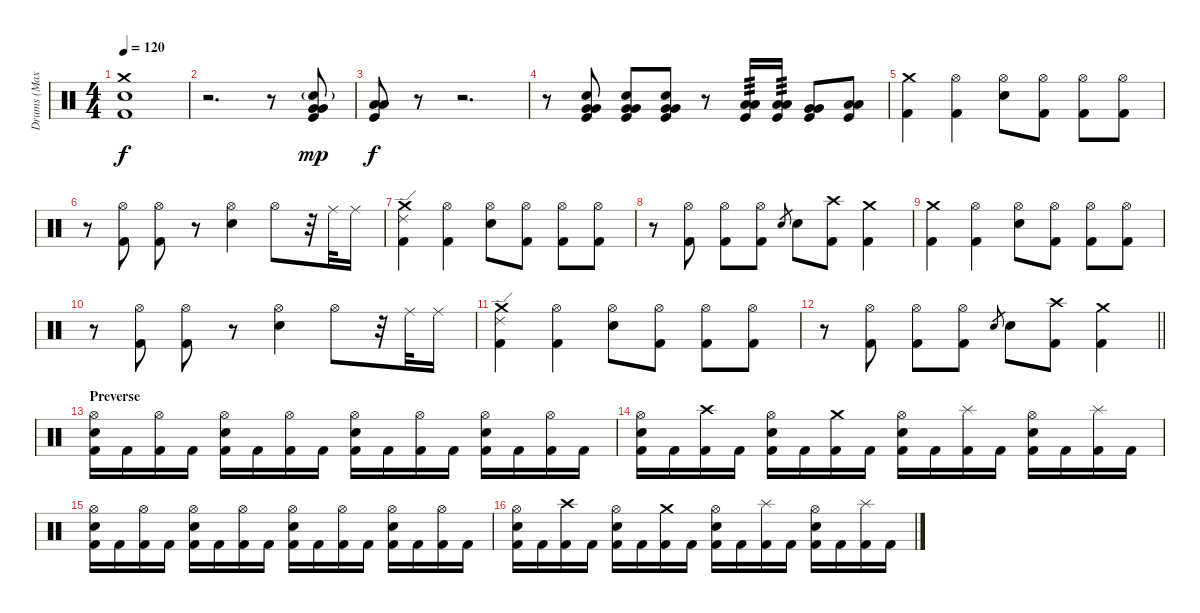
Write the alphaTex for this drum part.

\track ("Drums (Max Duhamel)" "Drums (Max") {instrument percussion}
\staff {score}
\articulation defaults
\ts (4 4)
\tempo 120
\clef neutral
\ks c
("Crash medium (hit)" "Electric Snare (hit)" "Kick (hit) 2").1{dy f} |
r.2{d} r.8 ("Very Low Tom (hit)" "Very Low Tom (hit)" "Electric Snare (hit)"{g} "Kick (hit)").8{dy mp} |
("Low Floor Tom (hit)" "Low Floor Tom (hit)" "Kick (hit)").8{dy f} r.8 r.2{d} |
r.8 ("Very Low Tom (hit)" "Very Low Tom (hit)" "Electric Snare (hit)" "Kick (hit)").8 ("Very Low Tom (hit)" "Very Low Tom (hit)" "Electric Snare (hit)" "Kick (hit)").8 ("Very Low Tom (hit)" "Very Low Tom (hit)" "Electric Snare (hit)" "Kick (hit)").8 r.8 ("Low Tom (hit)" "Low Tom (hit)" "Kick (hit)").16{tp 3} ("Low Tom (hit)" "Low Tom (hit)" "Kick (hit)").16{tp 3} ("Very Low Tom (hit)" "Very Low Tom (hit)" "Kick (hit)").8 ("Low Tom (hit)" "Low Tom (hit)" "Kick (hit)").8 |
("Crash medium (hit)" "Kick (hit) 2").4 ("Hi-Hat (open)" "Kick (hit) 2").4 ("Hi-Hat (open)" "Electric Snare (hit)").8 ("Hi-Hat (open)" "Kick (hit) 2").8 ("Hi-Hat (open)" "Kick (hit) 2").8 ("Hi-Hat (open)" "Kick (hit) 2").8 |
r.8 ("Hi-Hat (open)" "Kick (hit) 2").8 ("Hi-Hat (open)" "Kick (hit) 2").8 r.8 ("Hi-Hat (open)" "Electric Snare (hit)").4 "Hi-Hat (open)".8 r.32 "Ride (middle)".32 "Ride (middle)".16 |
("Crash medium (hit)" "Ride (edge) 2" "Kick (hit) 2").4 ("Hi-Hat (open)" "Kick (hit) 2").4 ("Hi-Hat (open)" "Electric Snare (hit)").8 ("Hi-Hat (open)" "Kick (hit) 2").8 ("Hi-Hat (open)" "Kick (hit) 2").8 ("Hi-Hat (open)" "Kick (hit) 2").8 |
r.8 ("Hi-Hat (open)" "Kick (hit) 2").8 ("Hi-Hat (open)" "Kick (hit) 2").8 ("Hi-Hat (open)" "Kick (hit) 2").8 "Electric Snare (hit)".8{gr} "Electric Snare (hit)".8 ("Crash high (hit)" "Kick (hit) 2").8 ("Crash medium (hit)" "Kick (hit) 2").4 |
("Crash medium (hit)" "Kick (hit) 2").4 ("Hi-Hat (open)" "Kick (hit) 2").4 ("Hi-Hat (open)" "Electric Snare (hit)").8 ("Hi-Hat (open)" "Kick (hit) 2").8 ("Hi-Hat (open)" "Kick (hit) 2").8 ("Hi-Hat (open)" "Kick (hit) 2").8 |
r.8 ("Hi-Hat (open)" "Kick (hit) 2").8 ("Hi-Hat (open)" "Kick (hit) 2").8 r.8 ("Hi-Hat (open)" "Electric Snare (hit)").4 "Hi-Hat (open)".8 r.32 "Ride (middle)".32 "Ride (middle)".16 |
("Crash medium (hit)" "Ride (edge) 2" "Kick (hit) 2").4 ("Hi-Hat (open)" "Kick (hit) 2").4 ("Hi-Hat (open)" "Electric Snare (hit)").8 ("Hi-Hat (open)" "Kick (hit) 2").8 ("Hi-Hat (open)" "Kick (hit) 2").8 ("Hi-Hat (open)" "Kick (hit) 2").8 |
\barLineRight lightlight
r.8 ("Hi-Hat (open)" "Kick (hit) 2").8 ("Hi-Hat (open)" "Kick (hit) 2").8 ("Hi-Hat (open)" "Kick (hit) 2").8 "Electric Snare (hit)".8{gr} "Electric Snare (hit)".8 ("Crash high (hit)" "Kick (hit) 2").8 ("Crash medium (hit)" "Kick (hit) 2").4 |
\section ("" "Preverse")
("Hi-Hat (open)" "Electric Snare (hit)" "Kick (hit) 2").16 "Kick (hit) 2".16 ("Hi-Hat (open)" "Kick (hit) 2").16 "Kick (hit) 2".16 ("Hi-Hat (open)" "Electric Snare (hit)" "Kick (hit) 2").16 "Kick (hit) 2".16 ("Hi-Hat (open)" "Kick (hit) 2").16 "Kick (hit) 2".16 ("Hi-Hat (open)" "Electric Snare (hit)" "Kick (hit) 2").16 "Kick (hit) 2".16 ("Hi-Hat (open)" "Kick (hit) 2").16 "Kick (hit) 2".16 ("Hi-Hat (open)" "Electric Snare (hit)" "Kick (hit) 2").16 "Kick (hit) 2".16 ("Hi-Hat (open)" "Kick (hit) 2").16 "Kick (hit) 2".16 |
("Hi-Hat (open)" "Electric Snare (hit)" "Kick (hit) 2").16 "Kick (hit) 2".16 ("Crash high (hit)" "Kick (hit) 2").16 "Kick (hit) 2".16 ("Hi-Hat (open)" "Electric Snare (hit)" "Kick (hit) 2").16 "Kick (hit) 2".16 ("Crash medium (hit)" "Kick (hit) 2").16 "Kick (hit) 2".16 ("Hi-Hat (open)" "Electric Snare (hit)" "Kick (hit) 2").16 "Kick (hit) 2".16 ("Splash (hit)" "Kick (hit) 2").16 "Kick (hit) 2".16 ("Hi-Hat (open)" "Electric Snare (hit)" "Kick (hit) 2").16 "Kick (hit) 2".16 ("Splash (hit)" "Kick (hit) 2").16 "Kick (hit) 2".16 |
("Hi-Hat (open)" "Electric Snare (hit)" "Kick (hit) 2").16 "Kick (hit) 2".16 ("Hi-Hat (open)" "Kick (hit) 2").16 "Kick (hit) 2".16 ("Hi-Hat (open)" "Electric Snare (hit)" "Kick (hit) 2").16 "Kick (hit) 2".16 ("Hi-Hat (open)" "Kick (hit) 2").16 "Kick (hit) 2".16 ("Hi-Hat (open)" "Electric Snare (hit)" "Kick (hit) 2").16 "Kick (hit) 2".16 ("Hi-Hat (open)" "Kick (hit) 2").16 "Kick (hit) 2".16 ("Hi-Hat (open)" "Electric Snare (hit)" "Kick (hit) 2").16 "Kick (hit) 2".16 ("Hi-Hat (open)" "Kick (hit) 2").16 "Kick (hit) 2".16 |
("Hi-Hat (open)" "Electric Snare (hit)" "Kick (hit) 2").16 "Kick (hit) 2".16 ("Crash high (hit)" "Kick (hit) 2").16 "Kick (hit) 2".16 ("Hi-Hat (open)" "Electric Snare (hit)" "Kick (hit) 2").16 "Kick (hit) 2".16 ("Crash medium (hit)" "Kick (hit) 2").16 "Kick (hit) 2".16 ("Hi-Hat (open)" "Electric Snare (hit)" "Kick (hit) 2").16 "Kick (hit) 2".16 ("Splash (hit)" "Kick (hit) 2").16 "Kick (hit) 2".16 ("Hi-Hat (open)" "Electric Snare (hit)" "Kick (hit) 2").16 "Kick (hit) 2".16 ("Splash (hit)" "Kick (hit) 2").16 "Kick (hit) 2".16
